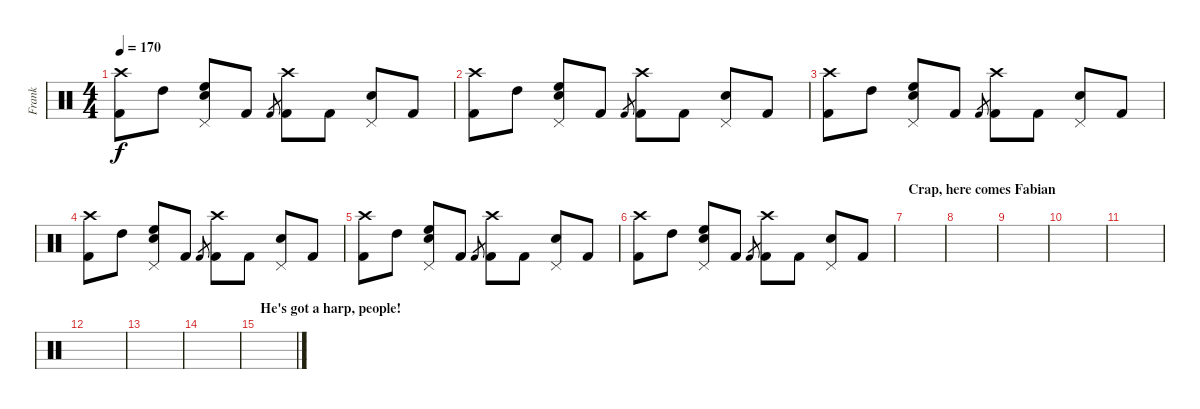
\track ("Frank" "Frank") {instrument percussion}
\staff {score}
\articulation defaults
\ts (4 4)
\tempo 170
\clef neutral
\ks c
("Crash high (hit)" "Kick (hit) 2").8{dy f} "High Tom (hit)".8 ("Pedal Hi-Hat (hit)" "High Floor Tom (hit)" "Snare (hit) 2").8 "Kick (hit) 2".8 "Kick (hit) 2".8{gr} ("Crash high (hit)" "Kick (hit) 2").8 "Kick (hit) 2".8 ("Pedal Hi-Hat (hit)" "Snare (hit) 2").8 "Kick (hit) 2".8 |
("Crash high (hit)" "Kick (hit) 2").8 "High Tom (hit)".8 ("Pedal Hi-Hat (hit)" "High Floor Tom (hit)" "Snare (hit) 2").8 "Kick (hit) 2".8 "Kick (hit) 2".8{gr} ("Crash high (hit)" "Kick (hit) 2").8 "Kick (hit) 2".8 ("Pedal Hi-Hat (hit)" "Snare (hit) 2").8 "Kick (hit) 2".8 |
("Crash high (hit)" "Kick (hit) 2").8 "High Tom (hit)".8 ("Pedal Hi-Hat (hit)" "High Floor Tom (hit)" "Snare (hit) 2").8 "Kick (hit) 2".8 "Kick (hit) 2".8{gr} ("Crash high (hit)" "Kick (hit) 2").8 "Kick (hit) 2".8 ("Pedal Hi-Hat (hit)" "Snare (hit) 2").8 "Kick (hit) 2".8 |
("Crash high (hit)" "Kick (hit) 2").8 "High Tom (hit)".8 ("Pedal Hi-Hat (hit)" "High Floor Tom (hit)" "Snare (hit) 2").8 "Kick (hit) 2".8 "Kick (hit) 2".8{gr} ("Crash high (hit)" "Kick (hit) 2").8 "Kick (hit) 2".8 ("Pedal Hi-Hat (hit)" "Snare (hit) 2").8 "Kick (hit) 2".8 |
("Crash high (hit)" "Kick (hit) 2").8 "High Tom (hit)".8 ("Pedal Hi-Hat (hit)" "High Floor Tom (hit)" "Snare (hit) 2").8 "Kick (hit) 2".8 "Kick (hit) 2".8{gr} ("Crash high (hit)" "Kick (hit) 2").8 "Kick (hit) 2".8 ("Pedal Hi-Hat (hit)" "Snare (hit) 2").8 "Kick (hit) 2".8 |
("Crash high (hit)" "Kick (hit) 2").8 "High Tom (hit)".8 ("Pedal Hi-Hat (hit)" "High Floor Tom (hit)" "Snare (hit) 2").8 "Kick (hit) 2".8 "Kick (hit) 2".8{gr} ("Crash high (hit)" "Kick (hit) 2").8 "Kick (hit) 2".8 ("Pedal Hi-Hat (hit)" "Snare (hit) 2").8 "Kick (hit) 2".8 |
\section ("" "Crap, here comes Fabian")
|
|
|
|
|
|
|
|
\section ("" "He's got a harp, people!")
